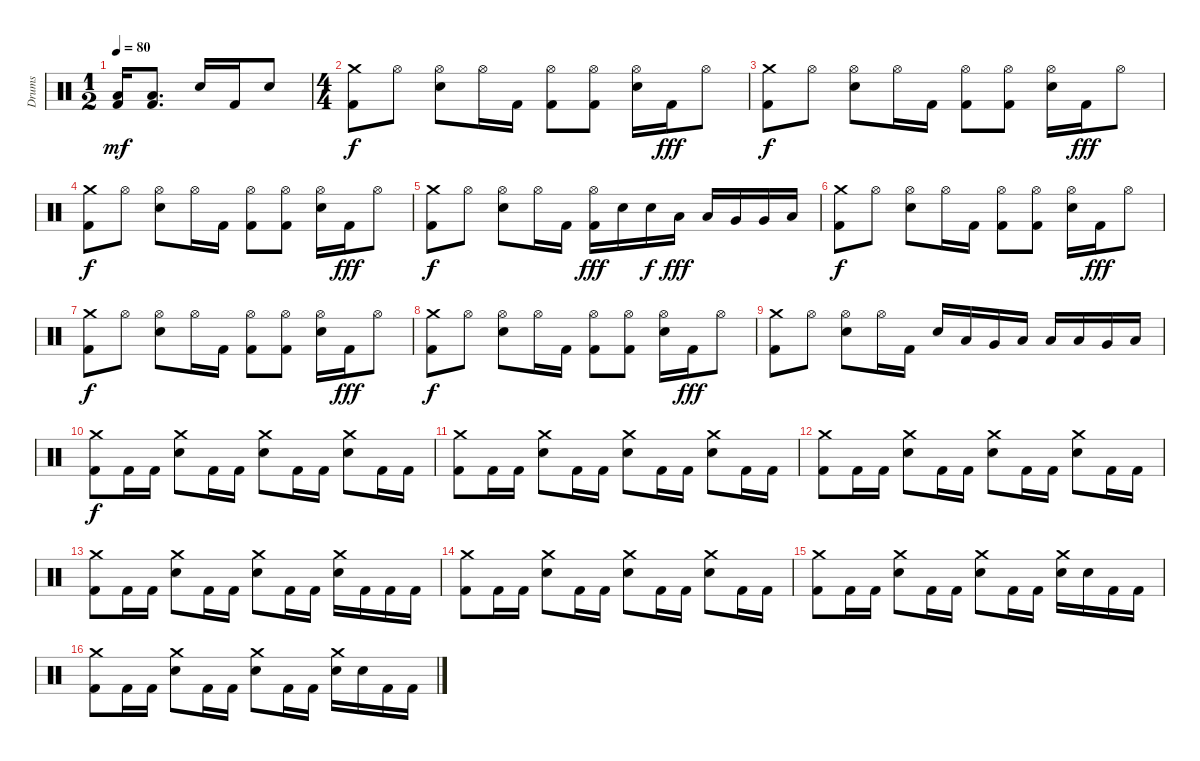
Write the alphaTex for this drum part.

\track ("Drums" "Drums") {instrument percussion}
\staff {score}
\articulation defaults
\ts (1 2)
\tempo 80
\clef neutral
\ks c
("Low Floor Tom (hit)" "Kick (hit) 2").16{dy mf} ("Low Floor Tom (hit)" "Kick (hit) 2").8{d} "Snare (hit) 2".16 "Kick (hit) 2".16 "Snare (hit) 2".8 |
\ts (4 4)
("Crash medium (hit)" "Kick (hit) 2").8{dy f} "Hi-Hat (open)".8 ("Hi-Hat (open)" "Snare (hit) 2").8 "Hi-Hat (open)".16 "Kick (hit) 2".16 ("Hi-Hat (open)" "Kick (hit) 2").8 ("Hi-Hat (open)" "Kick (hit) 2").8 ("Hi-Hat (open)" "Snare (hit) 2").16 "Kick (hit) 2".16{dy fff} "Hi-Hat (open)".8 |
("Crash medium (hit)" "Kick (hit) 2").8{dy f} "Hi-Hat (open)".8 ("Hi-Hat (open)" "Snare (hit) 2").8 "Hi-Hat (open)".16 "Kick (hit) 2".16 ("Hi-Hat (open)" "Kick (hit) 2").8 ("Hi-Hat (open)" "Kick (hit) 2").8 ("Hi-Hat (open)" "Snare (hit) 2").16 "Kick (hit) 2".16{dy fff} "Hi-Hat (open)".8 |
("Crash medium (hit)" "Kick (hit) 2").8{dy f} "Hi-Hat (open)".8 ("Hi-Hat (open)" "Snare (hit) 2").8 "Hi-Hat (open)".16 "Kick (hit) 2".16 ("Hi-Hat (open)" "Kick (hit) 2").8 ("Hi-Hat (open)" "Kick (hit) 2").8 ("Hi-Hat (open)" "Snare (hit) 2").16 "Kick (hit) 2".16{dy fff} "Hi-Hat (open)".8 |
("Crash medium (hit)" "Kick (hit) 2").8{dy f} "Hi-Hat (open)".8 ("Hi-Hat (open)" "Snare (hit) 2").8 "Hi-Hat (open)".16 "Kick (hit) 2".16 ("Hi-Hat (open)" "Kick (hit) 2").16{dy fff} "Snare (hit) 2".16 "Snare (hit) 2".16{dy f} "Low Tom (hit)".16{dy fff} "Low Tom (hit)".16 "Very Low Tom (hit)".16 "Very Low Tom (hit)".16 "Low Floor Tom (hit)".16 |
("Crash medium (hit)" "Kick (hit) 2").8{dy f} "Hi-Hat (open)".8 ("Hi-Hat (open)" "Snare (hit) 2").8 "Hi-Hat (open)".16 "Kick (hit) 2".16 ("Hi-Hat (open)" "Kick (hit) 2").8 ("Hi-Hat (open)" "Kick (hit) 2").8 ("Hi-Hat (open)" "Snare (hit) 2").16 "Kick (hit) 2".16{dy fff} "Hi-Hat (open)".8 |
("Crash medium (hit)" "Kick (hit) 2").8{dy f} "Hi-Hat (open)".8 ("Hi-Hat (open)" "Snare (hit) 2").8 "Hi-Hat (open)".16 "Kick (hit) 2".16 ("Hi-Hat (open)" "Kick (hit) 2").8 ("Hi-Hat (open)" "Kick (hit) 2").8 ("Hi-Hat (open)" "Snare (hit) 2").16 "Kick (hit) 2".16{dy fff} "Hi-Hat (open)".8 |
("Crash medium (hit)" "Kick (hit) 2").8{dy f} "Hi-Hat (open)".8 ("Hi-Hat (open)" "Snare (hit) 2").8 "Hi-Hat (open)".16 "Kick (hit) 2".16 ("Hi-Hat (open)" "Kick (hit) 2").8 ("Hi-Hat (open)" "Kick (hit) 2").8 ("Hi-Hat (open)" "Snare (hit) 2").16 "Kick (hit) 2".16{dy fff} "Hi-Hat (open)".8 |
("Crash medium (hit)" "Kick (hit) 2").8 "Hi-Hat (open)".8 ("Hi-Hat (open)" "Snare (hit) 2").8 "Hi-Hat (open)".16 "Kick (hit) 2".16 "Snare (hit) 2".16 "Low Floor Tom (hit)".16 "Very Low Tom (hit)".16 "Low Floor Tom (hit)".16 "Low Tom (hit)".16 "Low Floor Tom (hit)".16 "Very Low Tom (hit)".16 "Low Floor Tom (hit)".16 |
("Crash medium (hit)" "Kick (hit) 2").8{dy f} "Kick (hit) 2".16 "Kick (hit) 2".16 ("Crash medium (hit)" "Snare (hit) 2").8 "Kick (hit) 2".16 "Kick (hit) 2".16 ("Crash medium (hit)" "Snare (hit) 2").8 "Kick (hit) 2".16 "Kick (hit) 2".16 ("Crash medium (hit)" "Snare (hit) 2").8 "Kick (hit) 2".16 "Kick (hit) 2".16 |
("Crash medium (hit)" "Kick (hit) 2").8 "Kick (hit) 2".16 "Kick (hit) 2".16 ("Crash medium (hit)" "Snare (hit) 2").8 "Kick (hit) 2".16 "Kick (hit) 2".16 ("Crash medium (hit)" "Snare (hit) 2").8 "Kick (hit) 2".16 "Kick (hit) 2".16 ("Crash medium (hit)" "Snare (hit) 2").8 "Kick (hit) 2".16 "Kick (hit) 2".16 |
("Crash medium (hit)" "Kick (hit) 2").8 "Kick (hit) 2".16 "Kick (hit) 2".16 ("Crash medium (hit)" "Snare (hit) 2").8 "Kick (hit) 2".16 "Kick (hit) 2".16 ("Crash medium (hit)" "Snare (hit) 2").8 "Kick (hit) 2".16 "Kick (hit) 2".16 ("Crash medium (hit)" "Snare (hit) 2").8 "Kick (hit) 2".16 "Kick (hit) 2".16 |
("Crash medium (hit)" "Kick (hit) 2").8 "Kick (hit) 2".16 "Kick (hit) 2".16 ("Crash medium (hit)" "Snare (hit) 2").8 "Kick (hit) 2".16 "Kick (hit) 2".16 ("Crash medium (hit)" "Snare (hit) 2").8 "Kick (hit) 2".16 "Kick (hit) 2".16 ("Crash medium (hit)" "Snare (hit) 2").16 "Kick (hit) 2".16 "Kick (hit) 2".16 "Kick (hit) 2".16 |
("Crash medium (hit)" "Kick (hit) 2").8 "Kick (hit) 2".16 "Kick (hit) 2".16 ("Crash medium (hit)" "Snare (hit) 2").8 "Kick (hit) 2".16 "Kick (hit) 2".16 ("Crash medium (hit)" "Snare (hit) 2").8 "Kick (hit) 2".16 "Kick (hit) 2".16 ("Crash medium (hit)" "Snare (hit) 2").8 "Kick (hit) 2".16 "Kick (hit) 2".16 |
("Crash medium (hit)" "Kick (hit) 2").8 "Kick (hit) 2".16 "Kick (hit) 2".16 ("Crash medium (hit)" "Snare (hit) 2").8 "Kick (hit) 2".16 "Kick (hit) 2".16 ("Crash medium (hit)" "Snare (hit) 2").8 "Kick (hit) 2".16 "Kick (hit) 2".16 ("Crash medium (hit)" "Snare (hit) 2").16 "Snare (hit) 2".16 "Kick (hit) 2".16 "Kick (hit) 2".16 |
("Crash medium (hit)" "Kick (hit) 2").8 "Kick (hit) 2".16 "Kick (hit) 2".16 ("Crash medium (hit)" "Snare (hit) 2").8 "Kick (hit) 2".16 "Kick (hit) 2".16 ("Crash medium (hit)" "Snare (hit) 2").8 "Kick (hit) 2".16 "Kick (hit) 2".16 ("Crash medium (hit)" "Snare (hit) 2").16 "Snare (hit) 2".16 "Kick (hit) 2".16 "Kick (hit) 2".16
